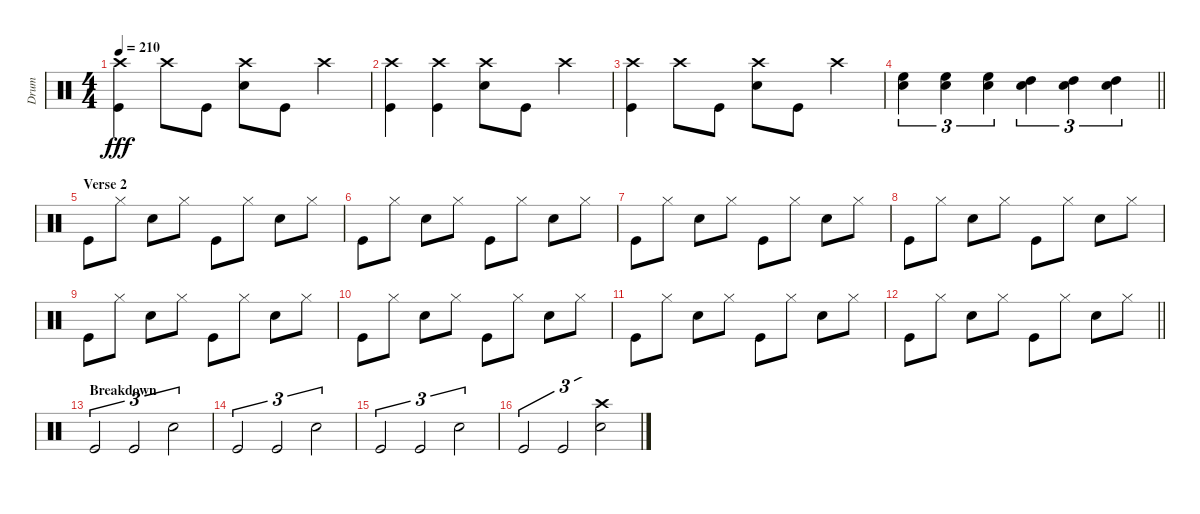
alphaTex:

\track ("Drum" "Drum") {instrument percussion}
\staff
\articulation defaults
\ts (4 4)
\tempo 210
\clef neutral
\ks c
("Crash high (hit)" "Kick (hit)").4{dy fff} "Crash high (hit)".8 "Kick (hit)".8 ("Crash high (hit)" "Snare (hit) 2").8 "Kick (hit)".8 "Crash high (hit)".4 |
("Crash high (hit)" "Kick (hit)").4 ("Crash high (hit)" "Kick (hit)").4 ("Crash high (hit)" "Snare (hit) 2").8 "Kick (hit)".8 "Crash high (hit)".4 |
("Crash high (hit)" "Kick (hit)").4 "Crash high (hit)".8 "Kick (hit)".8 ("Crash high (hit)" "Snare (hit) 2").8 "Kick (hit)".8 "Crash high (hit)".4 |
\barLineRight lightlight
("High Floor Tom (hit)" "Snare (hit) 2").4{tu (3 2)} ("High Floor Tom (hit)" "Snare (hit) 2").4{tu (3 2)} ("High Floor Tom (hit)" "Snare (hit) 2").4{tu (3 2)} ("High Tom (hit)" "Snare (hit) 2").4{tu (3 2)} ("High Tom (hit)" "Snare (hit) 2").4{tu (3 2)} ("High Tom (hit)" "Snare (hit) 2").4{tu (3 2)} |
\section ("" "Verse 2")
"Kick (hit)".8 "Hi-Hat (closed)".8 "Snare (hit) 2".8 "Hi-Hat (closed)".8 "Kick (hit)".8 "Hi-Hat (closed)".8 "Snare (hit) 2".8 "Hi-Hat (closed)".8 |
"Kick (hit)".8 "Hi-Hat (closed)".8 "Snare (hit) 2".8 "Hi-Hat (closed)".8 "Kick (hit)".8 "Hi-Hat (closed)".8 "Snare (hit) 2".8 "Hi-Hat (closed)".8 |
"Kick (hit)".8 "Hi-Hat (closed)".8 "Snare (hit) 2".8 "Hi-Hat (closed)".8 "Kick (hit)".8 "Hi-Hat (closed)".8 "Snare (hit) 2".8 "Hi-Hat (closed)".8 |
"Kick (hit)".8 "Hi-Hat (closed)".8 "Snare (hit) 2".8 "Hi-Hat (closed)".8 "Kick (hit)".8 "Hi-Hat (closed)".8 "Snare (hit) 2".8 "Hi-Hat (closed)".8 |
"Kick (hit)".8 "Hi-Hat (closed)".8 "Snare (hit) 2".8 "Hi-Hat (closed)".8 "Kick (hit)".8 "Hi-Hat (closed)".8 "Snare (hit) 2".8 "Hi-Hat (closed)".8 |
"Kick (hit)".8 "Hi-Hat (closed)".8 "Snare (hit) 2".8 "Hi-Hat (closed)".8 "Kick (hit)".8 "Hi-Hat (closed)".8 "Snare (hit) 2".8 "Hi-Hat (closed)".8 |
"Kick (hit)".8 "Hi-Hat (closed)".8 "Snare (hit) 2".8 "Hi-Hat (closed)".8 "Kick (hit)".8 "Hi-Hat (closed)".8 "Snare (hit) 2".8 "Hi-Hat (closed)".8 |
\barLineRight lightlight "Kick (hit)".8 "Hi-Hat (closed)".8 "Snare (hit) 2".8 "Hi-Hat (closed)".8 "Kick (hit)".8 "Hi-Hat (closed)".8 "Snare (hit) 2".8 "Hi-Hat (closed)".8
|
\section ("" "Breakdown")
"Kick (hit)".2{tu (3 2)} "Kick (hit)".2{tu (3 2)} "Snare (hit) 2".2{tu (3 2)} |
"Kick (hit)".2{tu (3 2)} "Kick (hit)".2{tu (3 2)} "Snare (hit) 2".2{tu (3 2)} |
"Kick (hit)".2{tu (3 2)} "Kick (hit)".2{tu (3 2)} "Snare (hit) 2".2{tu (3 2)} |
"Kick (hit)".2{tu (3 2)} "Kick (hit)".2{tu (3 2)} ("Crash high (hit)" "Snare (hit) 2").2{tu (3 2)}
